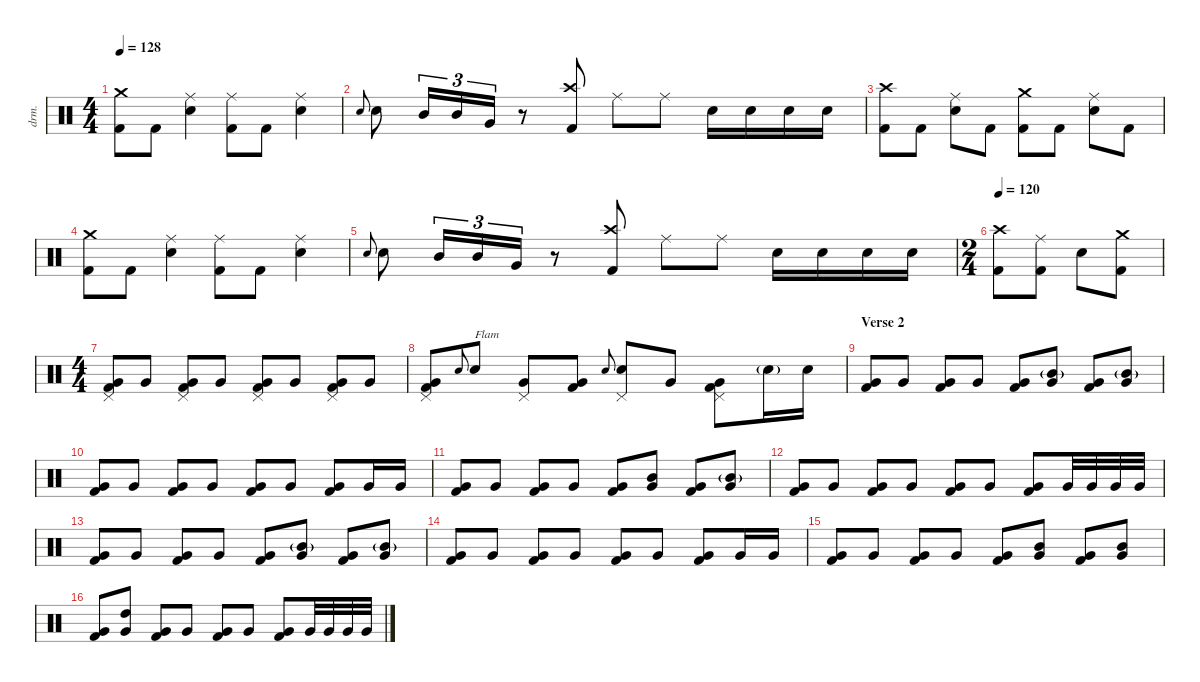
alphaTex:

\defaultSystemsLayout 4
\hideDynamics
\bracketExtendMode nobrackets
\otherSystemsTrackNameOrientation horizontal
\track ("Jimmy Chamberlin" "drm.") {instrument percussion}
\staff {score}
\articulation defaults
\ts (4 4)
\tempo 128
\clef neutral
\ks c
("Crash medium (hit)" "Kick (hit) 2").8{dy mf beam Down} "Kick (hit) 2".8{beam Down} ("Ride (middle)" "Snare (hit) 2").4{beam Down} ("Ride (middle)" "Kick (hit) 2").8{beam Down} "Kick (hit) 2".8{beam Down} ("Ride (middle)" "Snare (hit) 2").4{beam Down} |
"Snare (hit) 2".8{gr onbeat beam Up} "Snare (hit) 2".8{beam Down} "Mid Tom (hit)".16{tu (3 2) beam Up} "Mid Tom (hit)".16{tu (3 2) beam Up} "Very Low Tom (hit)".16{tu (3 2) beam Up} r.8{beam Up} ("Kick (hit) 2" "Crash high (hit)").8{beam Down} "Ride (middle)".8{beam Down} "Ride (middle)".8{beam Down} "Snare (hit) 2".16{beam Down} "Snare (hit) 2".16{beam Down} "Snare (hit) 2".16{beam Down} "Snare (hit) 2".16{beam Down} |
("Kick (hit) 2" "Crash high (hit)").8{beam Down} "Kick (hit) 2".8{beam Down} ("Ride (middle)" "Snare (hit) 2").8{beam Down} "Kick (hit) 2".8{beam Down} ("Crash medium (hit)" "Kick (hit) 2").8{beam Down} "Kick (hit) 2".8{beam Down} ("Ride (middle)" "Snare (hit) 2").8{beam Down} "Kick (hit) 2".8{beam Down} |
("Crash medium (hit)" "Kick (hit) 2").8{beam Down} "Kick (hit) 2".8{beam Down} ("Ride (middle)" "Snare (hit) 2").4{beam Down} ("Ride (middle)" "Kick (hit) 2").8{beam Down} "Kick (hit) 2".8{beam Down} ("Ride (middle)" "Snare (hit) 2").4{beam Down} |
"Snare (hit) 2".8{gr onbeat beam Up} "Snare (hit) 2".8{beam Down} "Mid Tom (hit)".16{tu (3 2) beam Up} "Mid Tom (hit)".16{tu (3 2) beam Up} "Very Low Tom (hit)".16{tu (3 2) beam Up} r.8{beam Up} ("Kick (hit) 2" "Crash high (hit)").8{beam Down} "Ride (middle)".8{beam Down} "Ride (middle)".8{beam Down} "Snare (hit) 2".16{beam Down} "Snare (hit) 2".16{beam Down} "Snare (hit) 2".16{beam Down} "Snare (hit) 2".16{beam Down} |
\ts (2 4)
\beaming (8 2 2 2 2)
\tempo 120
("Kick (hit) 2" "Crash high (hit)").8{beam Down} ("Kick (hit) 2" "Ride (middle)").8{beam Down} "Snare (hit) 2".8{beam Down} ("Crash medium (hit)" "Kick (hit) 2").8{beam Down} |
\ts (4 4)
\beaming (8 2 2 2 2)
("Kick (hit) 2" "Very Low Tom (hit)" "Pedal Hi-Hat (hit)").8{beam Up} "Very Low Tom (hit)".8{beam Up} ("Kick (hit) 2" "Very Low Tom (hit)" "Pedal Hi-Hat (hit)").8{beam Up} "Very Low Tom (hit)".8{beam Up} ("Kick (hit) 2" "Very Low Tom (hit)" "Pedal Hi-Hat (hit)").8{beam Up} "Very Low Tom (hit)".8{beam Up} ("Kick (hit) 2" "Very Low Tom (hit)" "Pedal Hi-Hat (hit)").8{beam Up} "Very Low Tom (hit)".8{beam Up} |
("Very Low Tom (hit)" "Kick (hit) 2" "Pedal Hi-Hat (hit)").8{beam Up} "Snare (hit) 2".8{gr onbeat beam Up} "Snare (hit) 2".8{txt "Flam" beam Up} ("Pedal Hi-Hat (hit)" "Very Low Tom (hit)").8{beam Up} ("Kick (hit) 2" "Very Low Tom (hit)").8{beam Up} "Snare (hit) 2".8{gr onbeat beam Up} ("Snare (hit) 2" "Pedal Hi-Hat (hit)").8{beam Up} "Very Low Tom (hit)".8{beam Up} ("Kick (hit) 2" "Pedal Hi-Hat (hit)" "Very Low Tom (hit)").8{beam Down} "Snare (hit) 2"{g}.16{beam Down} "Snare (hit) 2".16{beam Down} |
\section ("" "Verse 2")
("Very Low Tom (hit)" "Kick (hit) 2").8{beam Up} "Very Low Tom (hit)".8{beam Up} ("Very Low Tom (hit)" "Kick (hit) 2").8{beam Up} "Very Low Tom (hit)".8{beam Up} ("Very Low Tom (hit)" "Kick (hit) 2").8{beam Up} ("Very Low Tom (hit)" "Mid Tom (hit)"{g}).8{beam Up} ("Very Low Tom (hit)" "Kick (hit) 2").8{beam Up} ("Very Low Tom (hit)" "Mid Tom (hit)"{g}).8{beam Up} |
("Very Low Tom (hit)" "Kick (hit) 2").8{beam Up} "Very Low Tom (hit)".8{beam Up} ("Very Low Tom (hit)" "Kick (hit) 2").8{beam Up} "Very Low Tom (hit)".8{beam Up} ("Very Low Tom (hit)" "Kick (hit) 2").8{beam Up} "Very Low Tom (hit)".8{beam Up} ("Very Low Tom (hit)" "Kick (hit) 2").8{beam Up} "Very Low Tom (hit)".16{beam Up} "Very Low Tom (hit)".16{beam Up} |
("Very Low Tom (hit)" "Kick (hit) 2").8{beam Up} "Very Low Tom (hit)".8{beam Up} ("Very Low Tom (hit)" "Kick (hit) 2").8{beam Up} "Very Low Tom (hit)".8{beam Up} ("Very Low Tom (hit)" "Kick (hit) 2").8{beam Up} ("Very Low Tom (hit)" "Mid Tom (hit)").8{beam Up} ("Very Low Tom (hit)" "Kick (hit) 2").8{beam Up} ("Very Low Tom (hit)" "Mid Tom (hit)"{g}).8{beam Up} |
("Very Low Tom (hit)" "Kick (hit) 2").8{beam Up} "Very Low Tom (hit)".8{beam Up} ("Kick (hit) 2" "Very Low Tom (hit)").8{beam Up} "Very Low Tom (hit)".8{beam Up} ("Very Low Tom (hit)" "Kick (hit) 2").8{beam Up} "Very Low Tom (hit)".8{beam Up} ("Very Low Tom (hit)" "Kick (hit) 2").8{beam Up} "Very Low Tom (hit)".32{beam Up} "Very Low Tom (hit)".32{beam Up} "Very Low Tom (hit)".32{beam Up} "Very Low Tom (hit)".32{beam Up} |
("Very Low Tom (hit)" "Kick (hit) 2").8{beam Up} "Very Low Tom (hit)".8{beam Up} ("Very Low Tom (hit)" "Kick (hit) 2").8{beam Up} "Very Low Tom (hit)".8{beam Up} ("Very Low Tom (hit)" "Kick (hit) 2").8{beam Up} ("Very Low Tom (hit)" "Mid Tom (hit)"{g}).8{beam Up} ("Very Low Tom (hit)" "Kick (hit) 2").8{beam Up} ("Very Low Tom (hit)" "Mid Tom (hit)"{g}).8{beam Up} |
("Very Low Tom (hit)" "Kick (hit) 2").8{beam Up} "Very Low Tom (hit)".8{beam Up} ("Very Low Tom (hit)" "Kick (hit) 2").8{beam Up} "Very Low Tom (hit)".8{beam Up} ("Very Low Tom (hit)" "Kick (hit) 2").8{beam Up} "Very Low Tom (hit)".8{beam Up} ("Very Low Tom (hit)" "Kick (hit) 2").8{beam Up} "Very Low Tom (hit)".16{beam Up} "Very Low Tom (hit)".16{beam Up} |
("Very Low Tom (hit)" "Kick (hit) 2").8{beam Up} "Very Low Tom (hit)".8{beam Up} ("Very Low Tom (hit)" "Kick (hit) 2").8{beam Up} "Very Low Tom (hit)".8{beam Up} ("Very Low Tom (hit)" "Kick (hit) 2").8{beam Up} ("Very Low Tom (hit)" "Mid Tom (hit)").8{beam Up} ("Very Low Tom (hit)" "Kick (hit) 2").8{beam Up} ("Very Low Tom (hit)" "Mid Tom (hit)").8{beam Up} |
("Very Low Tom (hit)" "Kick (hit) 2").8{beam Up} ("High Tom (hit)" "Very Low Tom (hit)").8{beam Up} ("Very Low Tom (hit)" "Kick (hit) 2").8{beam Up} "Very Low Tom (hit)".8{beam Up} ("Very Low Tom (hit)" "Kick (hit) 2").8{beam Up} "Very Low Tom (hit)".8{beam Up} ("Very Low Tom (hit)" "Kick (hit) 2").8{beam Up} "Very Low Tom (hit)".32{beam Up} "Very Low Tom (hit)".32{beam Up} "Very Low Tom (hit)".32{beam Up} "Very Low Tom (hit)".32{beam Up}
